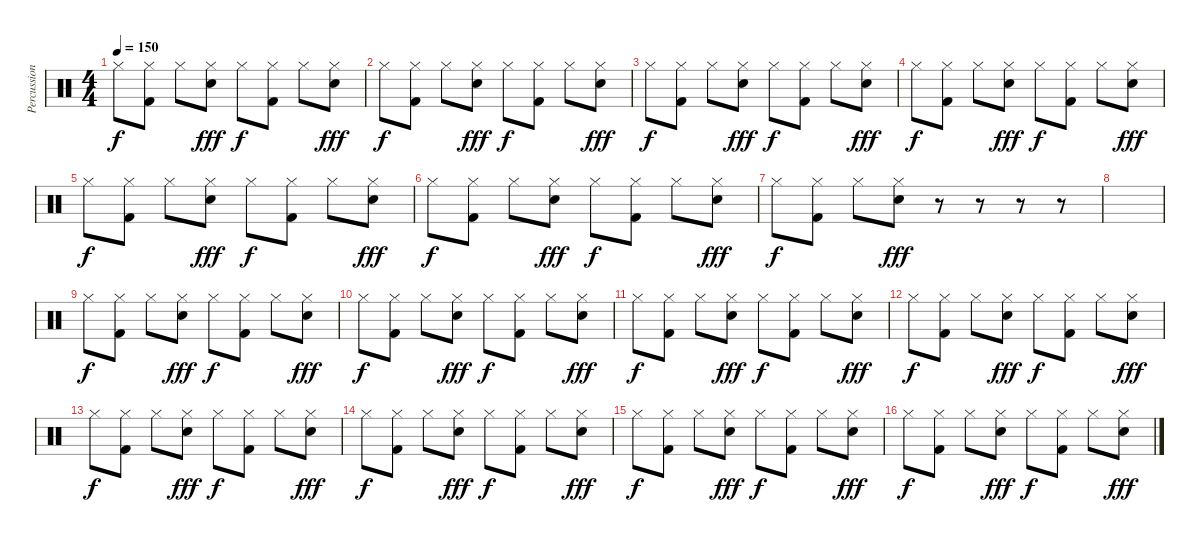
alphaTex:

\track ("Percussion" "Percussion") {instrument percussion}
\staff {score}
\articulation defaults
\ts (4 4)
\tempo 150
\clef neutral
\ks c "Hi-Hat (closed)".8{dy f}
("Hi-Hat (closed)" "Kick (hit) 2").8 "Hi-Hat (closed)".8 ("Hi-Hat (closed)" "Electric Snare (hit)").8{dy fff} "Hi-Hat (closed)".8{dy f} ("Hi-Hat (closed)" "Kick (hit) 2").8 "Hi-Hat (closed)".8 ("Hi-Hat (closed)" "Electric Snare (hit)").8{dy fff} |
"Hi-Hat (closed)".8{dy f} ("Hi-Hat (closed)" "Kick (hit) 2").8 "Hi-Hat (closed)".8 ("Hi-Hat (closed)" "Electric Snare (hit)").8{dy fff} "Hi-Hat (closed)".8{dy f} ("Hi-Hat (closed)" "Kick (hit) 2").8 "Hi-Hat (closed)".8 ("Hi-Hat (closed)" "Electric Snare (hit)").8{dy fff} |
"Hi-Hat (closed)".8{dy f} ("Hi-Hat (closed)" "Kick (hit) 2").8 "Hi-Hat (closed)".8 ("Hi-Hat (closed)" "Electric Snare (hit)").8{dy fff} "Hi-Hat (closed)".8{dy f} ("Hi-Hat (closed)" "Kick (hit) 2").8 "Hi-Hat (closed)".8 ("Hi-Hat (closed)" "Electric Snare (hit)").8{dy fff} |
"Hi-Hat (closed)".8{dy f} ("Hi-Hat (closed)" "Kick (hit) 2").8 "Hi-Hat (closed)".8 ("Hi-Hat (closed)" "Electric Snare (hit)").8{dy fff} "Hi-Hat (closed)".8{dy f} ("Hi-Hat (closed)" "Kick (hit) 2").8 "Hi-Hat (closed)".8 ("Hi-Hat (closed)" "Electric Snare (hit)").8{dy fff} |
"Hi-Hat (closed)".8{dy f} ("Hi-Hat (closed)" "Kick (hit) 2").8 "Hi-Hat (closed)".8 ("Hi-Hat (closed)" "Electric Snare (hit)").8{dy fff} "Hi-Hat (closed)".8{dy f} ("Hi-Hat (closed)" "Kick (hit) 2").8 "Hi-Hat (closed)".8 ("Hi-Hat (closed)" "Electric Snare (hit)").8{dy fff} |
"Hi-Hat (closed)".8{dy f} ("Hi-Hat (closed)" "Kick (hit) 2").8 "Hi-Hat (closed)".8 ("Hi-Hat (closed)" "Electric Snare (hit)").8{dy fff} "Hi-Hat (closed)".8{dy f} ("Hi-Hat (closed)" "Kick (hit) 2").8 "Hi-Hat (closed)".8 ("Hi-Hat (closed)" "Electric Snare (hit)").8{dy fff} |
"Hi-Hat (closed)".8{dy f} ("Hi-Hat (closed)" "Kick (hit) 2").8 "Hi-Hat (closed)".8 ("Hi-Hat (closed)" "Electric Snare (hit)").8{dy fff} r.8 r.8 r.8 r.8 |
|
"Hi-Hat (closed)".8{dy f} ("Hi-Hat (closed)" "Kick (hit) 2").8 "Hi-Hat (closed)".8 ("Hi-Hat (closed)" "Electric Snare (hit)").8{dy fff} "Hi-Hat (closed)".8{dy f} ("Hi-Hat (closed)" "Kick (hit) 2").8 "Hi-Hat (closed)".8 ("Hi-Hat (closed)" "Electric Snare (hit)").8{dy fff} |
"Hi-Hat (closed)".8{dy f} ("Hi-Hat (closed)" "Kick (hit) 2").8 "Hi-Hat (closed)".8 ("Hi-Hat (closed)" "Electric Snare (hit)").8{dy fff} "Hi-Hat (closed)".8{dy f} ("Hi-Hat (closed)" "Kick (hit) 2").8 "Hi-Hat (closed)".8 ("Hi-Hat (closed)" "Electric Snare (hit)").8{dy fff} |
"Hi-Hat (closed)".8{dy f} ("Hi-Hat (closed)" "Kick (hit) 2").8 "Hi-Hat (closed)".8 ("Hi-Hat (closed)" "Electric Snare (hit)").8{dy fff} "Hi-Hat (closed)".8{dy f} ("Hi-Hat (closed)" "Kick (hit) 2").8 "Hi-Hat (closed)".8 ("Hi-Hat (closed)" "Electric Snare (hit)").8{dy fff} |
"Hi-Hat (closed)".8{dy f} ("Hi-Hat (closed)" "Kick (hit) 2").8 "Hi-Hat (closed)".8 ("Hi-Hat (closed)" "Electric Snare (hit)").8{dy fff} "Hi-Hat (closed)".8{dy f} ("Hi-Hat (closed)" "Kick (hit) 2").8 "Hi-Hat (closed)".8 ("Hi-Hat (closed)" "Electric Snare (hit)").8{dy fff} |
"Hi-Hat (closed)".8{dy f} ("Hi-Hat (closed)" "Kick (hit) 2").8 "Hi-Hat (closed)".8 ("Hi-Hat (closed)" "Electric Snare (hit)").8{dy fff} "Hi-Hat (closed)".8{dy f} ("Hi-Hat (closed)" "Kick (hit) 2").8 "Hi-Hat (closed)".8 ("Hi-Hat (closed)" "Electric Snare (hit)").8{dy fff} |
"Hi-Hat (closed)".8{dy f} ("Hi-Hat (closed)" "Kick (hit) 2").8 "Hi-Hat (closed)".8 ("Hi-Hat (closed)" "Electric Snare (hit)").8{dy fff} "Hi-Hat (closed)".8{dy f} ("Hi-Hat (closed)" "Kick (hit) 2").8 "Hi-Hat (closed)".8 ("Hi-Hat (closed)" "Electric Snare (hit)").8{dy fff} |
"Hi-Hat (closed)".8{dy f} ("Hi-Hat (closed)" "Kick (hit) 2").8 "Hi-Hat (closed)".8 ("Hi-Hat (closed)" "Electric Snare (hit)").8{dy fff} "Hi-Hat (closed)".8{dy f} ("Hi-Hat (closed)" "Kick (hit) 2").8 "Hi-Hat (closed)".8 ("Hi-Hat (closed)" "Electric Snare (hit)").8{dy fff} |
"Hi-Hat (closed)".8{dy f} ("Hi-Hat (closed)" "Kick (hit) 2").8 "Hi-Hat (closed)".8 ("Hi-Hat (closed)" "Electric Snare (hit)").8{dy fff} "Hi-Hat (closed)".8{dy f} ("Hi-Hat (closed)" "Kick (hit) 2").8 "Hi-Hat (closed)".8 ("Hi-Hat (closed)" "Electric Snare (hit)").8{dy fff}
